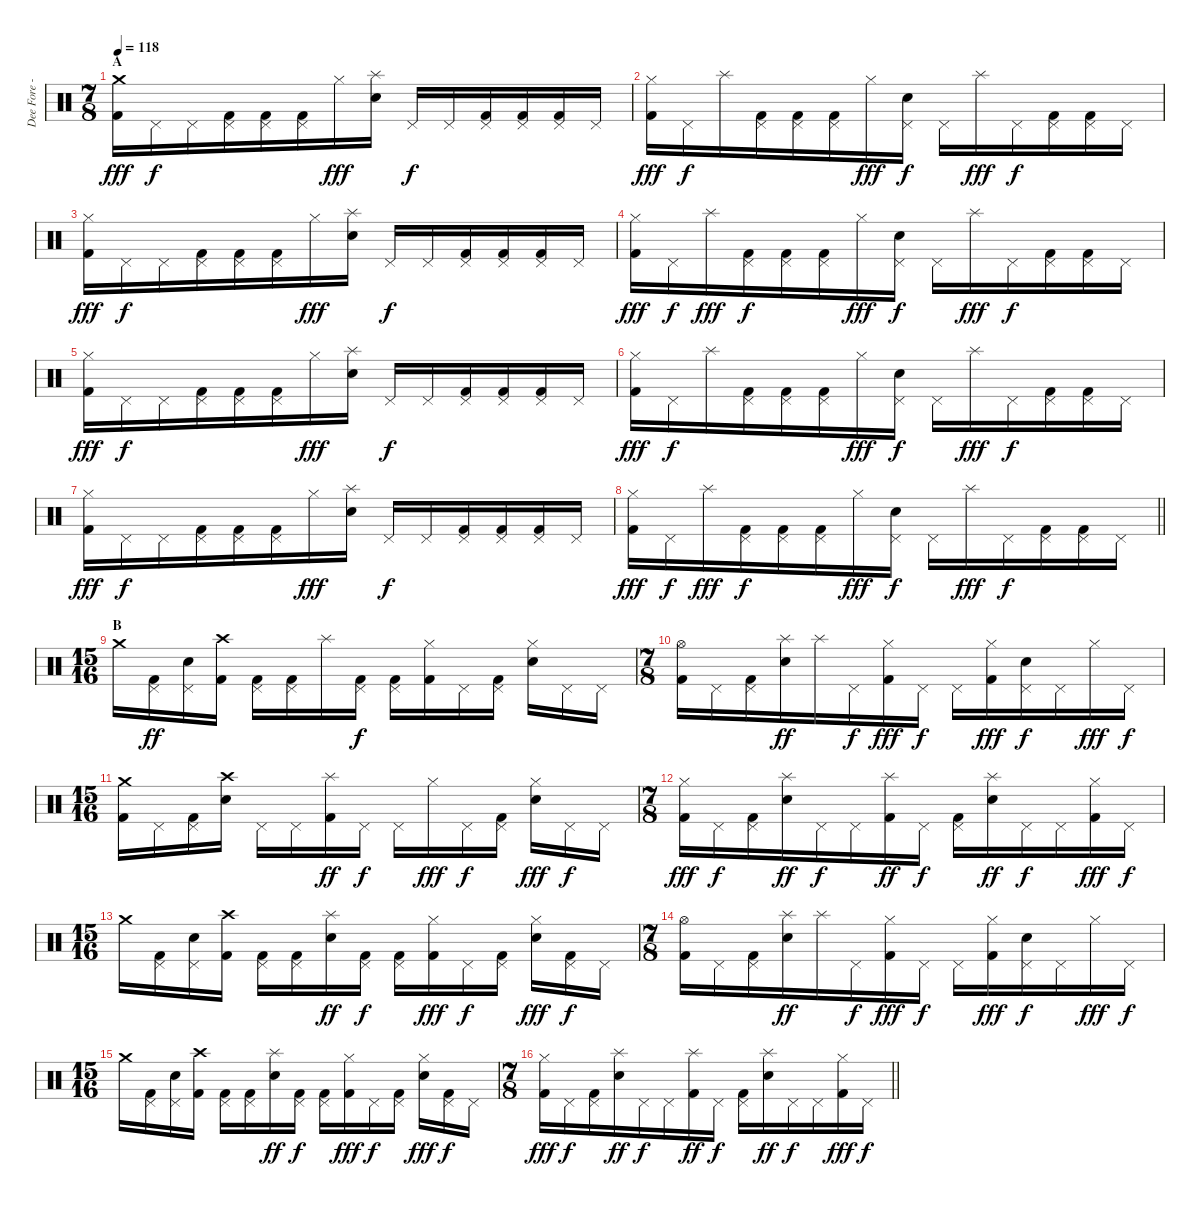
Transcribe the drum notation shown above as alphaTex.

\track ("Dee Fore - Drums" "Dee Fore -") {instrument percussion}
\staff {score}
\articulation defaults
\ts (7 8)
\section ("" "A")
\tempo 118
\clef neutral
\ks c
("Crash medium (hit)" "Kick (hit) 2").16{dy fff} "Pedal Hi-Hat (hit)".16{dy f} "Pedal Hi-Hat (hit)".16 ("Pedal Hi-Hat (hit)" "Kick (hit) 2").16 ("Pedal Hi-Hat (hit)" "Kick (hit) 2").16 ("Pedal Hi-Hat (hit)" "Kick (hit) 2").16 "Hi-Hat (closed)".16{dy fff} ("Splash (hit)" "Snare (hit) 2").16 "Pedal Hi-Hat (hit)".16{dy f} "Pedal Hi-Hat (hit)".16 ("Pedal Hi-Hat (hit)" "Kick (hit) 2").16 ("Pedal Hi-Hat (hit)" "Kick (hit) 2").16 ("Pedal Hi-Hat (hit)" "Kick (hit) 2").16 "Pedal Hi-Hat (hit)".16 |
("Hi-Hat (closed)" "Kick (hit) 2").16{dy fff} "Pedal Hi-Hat (hit)".16{dy f} "Splash (hit)".16 ("Pedal Hi-Hat (hit)" "Kick (hit) 2").16 ("Pedal Hi-Hat (hit)" "Kick (hit) 2").16 ("Pedal Hi-Hat (hit)" "Kick (hit) 2").16 "Hi-Hat (closed)".16{dy fff} ("Pedal Hi-Hat (hit)" "Snare (hit) 2").16{dy f} "Pedal Hi-Hat (hit)".16 "Splash (hit)".16{dy fff} "Pedal Hi-Hat (hit)".16{dy f} ("Pedal Hi-Hat (hit)" "Kick (hit) 2").16 ("Pedal Hi-Hat (hit)" "Kick (hit) 2").16 "Pedal Hi-Hat (hit)".16 |
("Hi-Hat (closed)" "Kick (hit) 2").16{dy fff} "Pedal Hi-Hat (hit)".16{dy f} "Pedal Hi-Hat (hit)".16 ("Pedal Hi-Hat (hit)" "Kick (hit) 2").16 ("Pedal Hi-Hat (hit)" "Kick (hit) 2").16 ("Pedal Hi-Hat (hit)" "Kick (hit) 2").16 "Hi-Hat (closed)".16{dy fff} ("Splash (hit)" "Snare (hit) 2").16 "Pedal Hi-Hat (hit)".16{dy f} "Pedal Hi-Hat (hit)".16 ("Pedal Hi-Hat (hit)" "Kick (hit) 2").16 ("Pedal Hi-Hat (hit)" "Kick (hit) 2").16 ("Pedal Hi-Hat (hit)" "Kick (hit) 2").16 "Pedal Hi-Hat (hit)".16 |
("Hi-Hat (closed)" "Kick (hit) 2").16{dy fff} "Pedal Hi-Hat (hit)".16{dy f} "Splash (hit)".16{dy fff} ("Pedal Hi-Hat (hit)" "Kick (hit) 2").16{dy f} ("Pedal Hi-Hat (hit)" "Kick (hit) 2").16 ("Pedal Hi-Hat (hit)" "Kick (hit) 2").16 "Hi-Hat (closed)".16{dy fff} ("Pedal Hi-Hat (hit)" "Snare (hit) 2").16{dy f} "Pedal Hi-Hat (hit)".16 "Splash (hit)".16{dy fff} "Pedal Hi-Hat (hit)".16{dy f} ("Pedal Hi-Hat (hit)" "Kick (hit) 2").16 ("Pedal Hi-Hat (hit)" "Kick (hit) 2").16 "Pedal Hi-Hat (hit)".16 |
("Hi-Hat (closed)" "Kick (hit) 2").16{dy fff} "Pedal Hi-Hat (hit)".16{dy f} "Pedal Hi-Hat (hit)".16 ("Pedal Hi-Hat (hit)" "Kick (hit) 2").16 ("Pedal Hi-Hat (hit)" "Kick (hit) 2").16 ("Pedal Hi-Hat (hit)" "Kick (hit) 2").16 "Hi-Hat (closed)".16{dy fff} ("Splash (hit)" "Snare (hit) 2").16 "Pedal Hi-Hat (hit)".16{dy f} "Pedal Hi-Hat (hit)".16 ("Pedal Hi-Hat (hit)" "Kick (hit) 2").16 ("Pedal Hi-Hat (hit)" "Kick (hit) 2").16 ("Pedal Hi-Hat (hit)" "Kick (hit) 2").16 "Pedal Hi-Hat (hit)".16 |
("Hi-Hat (closed)" "Kick (hit) 2").16{dy fff} "Pedal Hi-Hat (hit)".16{dy f} "Splash (hit)".16 ("Pedal Hi-Hat (hit)" "Kick (hit) 2").16 ("Pedal Hi-Hat (hit)" "Kick (hit) 2").16 ("Pedal Hi-Hat (hit)" "Kick (hit) 2").16 "Hi-Hat (closed)".16{dy fff} ("Pedal Hi-Hat (hit)" "Snare (hit) 2").16{dy f} "Pedal Hi-Hat (hit)".16 "Splash (hit)".16{dy fff} "Pedal Hi-Hat (hit)".16{dy f} ("Pedal Hi-Hat (hit)" "Kick (hit) 2").16 ("Pedal Hi-Hat (hit)" "Kick (hit) 2").16 "Pedal Hi-Hat (hit)".16 |
("Hi-Hat (closed)" "Kick (hit) 2").16{dy fff} "Pedal Hi-Hat (hit)".16{dy f} "Pedal Hi-Hat (hit)".16 ("Pedal Hi-Hat (hit)" "Kick (hit) 2").16 ("Pedal Hi-Hat (hit)" "Kick (hit) 2").16 ("Pedal Hi-Hat (hit)" "Kick (hit) 2").16 "Hi-Hat (closed)".16{dy fff} ("Splash (hit)" "Snare (hit) 2").16 "Pedal Hi-Hat (hit)".16{dy f} "Pedal Hi-Hat (hit)".16 ("Pedal Hi-Hat (hit)" "Kick (hit) 2").16 ("Pedal Hi-Hat (hit)" "Kick (hit) 2").16 ("Pedal Hi-Hat (hit)" "Kick (hit) 2").16 "Pedal Hi-Hat (hit)".16 |
\barLineRight lightlight
("Hi-Hat (closed)" "Kick (hit) 2").16{dy fff} "Pedal Hi-Hat (hit)".16{dy f} "Splash (hit)".16{dy fff} ("Pedal Hi-Hat (hit)" "Kick (hit) 2").16{dy f} ("Pedal Hi-Hat (hit)" "Kick (hit) 2").16 ("Pedal Hi-Hat (hit)" "Kick (hit) 2").16 "Hi-Hat (closed)".16{dy fff} ("Pedal Hi-Hat (hit)" "Snare (hit) 2").16{dy f} "Pedal Hi-Hat (hit)".16 "Splash (hit)".16{dy fff} "Pedal Hi-Hat (hit)".16{dy f} ("Pedal Hi-Hat (hit)" "Kick (hit) 2").16 ("Pedal Hi-Hat (hit)" "Kick (hit) 2").16 "Pedal Hi-Hat (hit)".16 |
\ts (15 16)
\section ("" "B")
"Crash medium (hit)".16 ("Pedal Hi-Hat (hit)" "Kick (hit) 2").16{dy ff} ("Pedal Hi-Hat (hit)" "Snare (hit) 2").16 ("Crash high (hit)" "Kick (hit) 2").16 ("Pedal Hi-Hat (hit)" "Kick (hit) 2").16 ("Pedal Hi-Hat (hit)" "Kick (hit) 2").16 "Splash (hit)".16 ("Pedal Hi-Hat (hit)" "Kick (hit) 2").16{dy f} ("Pedal Hi-Hat (hit)" "Kick (hit) 2").16 ("Hi-Hat (closed)" "Kick (hit) 2").16 "Pedal Hi-Hat (hit)".16 ("Pedal Hi-Hat (hit)" "Kick (hit) 2").16 ("Hi-Hat (closed)" "Snare (hit) 2").16 "Pedal Hi-Hat (hit)".16 "Pedal Hi-Hat (hit)".16 |
\ts (7 8)
("Hi-Hat (open)" "Kick (hit) 2").16 "Pedal Hi-Hat (hit)".16 ("Pedal Hi-Hat (hit)" "Kick (hit) 2").16 ("Splash (hit)" "Snare (hit) 2").16{dy ff} "Splash (hit)".16 "Pedal Hi-Hat (hit)".16{dy f} ("Hi-Hat (closed)" "Kick (hit) 2").16{dy fff} "Pedal Hi-Hat (hit)".16{dy f} "Pedal Hi-Hat (hit)".16 ("Hi-Hat (closed)" "Kick (hit) 2").16{dy fff} ("Pedal Hi-Hat (hit)" "Snare (hit) 2").16{dy f} "Pedal Hi-Hat (hit)".16 "Hi-Hat (closed)".16{dy fff} "Pedal Hi-Hat (hit)".16{dy f} |
\ts (15 16)
("Crash medium (hit)" "Kick (hit) 2").16 "Pedal Hi-Hat (hit)".16 ("Pedal Hi-Hat (hit)" "Kick (hit) 2").16 ("Crash high (hit)" "Snare (hit) 2").16 "Pedal Hi-Hat (hit)".16 "Pedal Hi-Hat (hit)".16 ("Splash (hit)" "Kick (hit) 2").16{dy ff} "Pedal Hi-Hat (hit)".16{dy f} "Pedal Hi-Hat (hit)".16 "Hi-Hat (closed)".16{dy fff} "Pedal Hi-Hat (hit)".16{dy f} ("Pedal Hi-Hat (hit)" "Kick (hit) 2").16 ("Hi-Hat (closed)" "Snare (hit) 2").16{dy fff} "Pedal Hi-Hat (hit)".16{dy f} "Pedal Hi-Hat (hit)".16 |
\ts (7 8)
("Hi-Hat (closed)" "Kick (hit) 2").16{dy fff} "Pedal Hi-Hat (hit)".16{dy f} ("Pedal Hi-Hat (hit)" "Kick (hit) 2").16 ("Splash (hit)" "Snare (hit) 2").16{dy ff} "Pedal Hi-Hat (hit)".16{dy f} "Pedal Hi-Hat (hit)".16 ("Splash (hit)" "Kick (hit) 2").16{dy ff} "Pedal Hi-Hat (hit)".16{dy f} ("Pedal Hi-Hat (hit)" "Kick (hit) 2").16 ("Splash (hit)" "Snare (hit) 2").16{dy ff} "Pedal Hi-Hat (hit)".16{dy f} "Pedal Hi-Hat (hit)".16 ("Hi-Hat (closed)" "Kick (hit) 2").16{dy fff} "Pedal Hi-Hat (hit)".16{dy f} |
\ts (15 16)
"Crash medium (hit)".16 ("Pedal Hi-Hat (hit)" "Kick (hit) 2").16 ("Pedal Hi-Hat (hit)" "Snare (hit) 2").16 ("Crash high (hit)" "Kick (hit) 2").16 ("Pedal Hi-Hat (hit)" "Kick (hit) 2").16 ("Pedal Hi-Hat (hit)" "Kick (hit) 2").16 ("Splash (hit)" "Snare (hit) 2").16{dy ff} ("Pedal Hi-Hat (hit)" "Kick (hit) 2").16{dy f} ("Pedal Hi-Hat (hit)" "Kick (hit) 2").16 ("Hi-Hat (closed)" "Kick (hit) 2").16{dy fff} "Pedal Hi-Hat (hit)".16{dy f} ("Pedal Hi-Hat (hit)" "Kick (hit) 2").16 ("Hi-Hat (closed)" "Snare (hit) 2").16{dy fff} ("Pedal Hi-Hat (hit)" "Kick (hit) 2").16{dy f} "Pedal Hi-Hat (hit)".16 |
\ts (7 8)
("Hi-Hat (open)" "Kick (hit) 2").16 "Pedal Hi-Hat (hit)".16 ("Pedal Hi-Hat (hit)" "Kick (hit) 2").16 ("Splash (hit)" "Snare (hit) 2").16{dy ff} "Splash (hit)".16 "Pedal Hi-Hat (hit)".16{dy f} ("Hi-Hat (closed)" "Kick (hit) 2").16{dy fff} "Pedal Hi-Hat (hit)".16{dy f} "Pedal Hi-Hat (hit)".16 ("Hi-Hat (closed)" "Kick (hit) 2").16{dy fff} ("Pedal Hi-Hat (hit)" "Snare (hit) 2").16{dy f} "Pedal Hi-Hat (hit)".16 "Hi-Hat (closed)".16{dy fff} "Pedal Hi-Hat (hit)".16{dy f} |
\ts (15 16)
"Crash medium (hit)".16 ("Pedal Hi-Hat (hit)" "Kick (hit) 2").16 ("Pedal Hi-Hat (hit)" "Snare (hit) 2").16 ("Crash high (hit)" "Kick (hit) 2").16 ("Pedal Hi-Hat (hit)" "Kick (hit) 2").16 ("Pedal Hi-Hat (hit)" "Kick (hit) 2").16 ("Splash (hit)" "Snare (hit) 2").16{dy ff} ("Pedal Hi-Hat (hit)" "Kick (hit) 2").16{dy f} ("Pedal Hi-Hat (hit)" "Kick (hit) 2").16 ("Hi-Hat (closed)" "Kick (hit) 2").16{dy fff} "Pedal Hi-Hat (hit)".16{dy f} ("Pedal Hi-Hat (hit)" "Kick (hit) 2").16 ("Hi-Hat (closed)" "Snare (hit) 2").16{dy fff} ("Pedal Hi-Hat (hit)" "Kick (hit) 2").16{dy f} "Pedal Hi-Hat (hit)".16 |
\ts (7 8)
\barLineRight lightlight
("Hi-Hat (closed)" "Kick (hit) 2").16{dy fff} "Pedal Hi-Hat (hit)".16{dy f} ("Pedal Hi-Hat (hit)" "Kick (hit) 2").16 ("Splash (hit)" "Snare (hit) 2").16{dy ff} "Pedal Hi-Hat (hit)".16{dy f} "Pedal Hi-Hat (hit)".16 ("Splash (hit)" "Kick (hit) 2").16{dy ff} "Pedal Hi-Hat (hit)".16{dy f} ("Pedal Hi-Hat (hit)" "Kick (hit) 2").16 ("Splash (hit)" "Snare (hit) 2").16{dy ff} "Pedal Hi-Hat (hit)".16{dy f} "Pedal Hi-Hat (hit)".16 ("Hi-Hat (closed)" "Kick (hit) 2").16{dy fff} "Pedal Hi-Hat (hit)".16{dy f}
